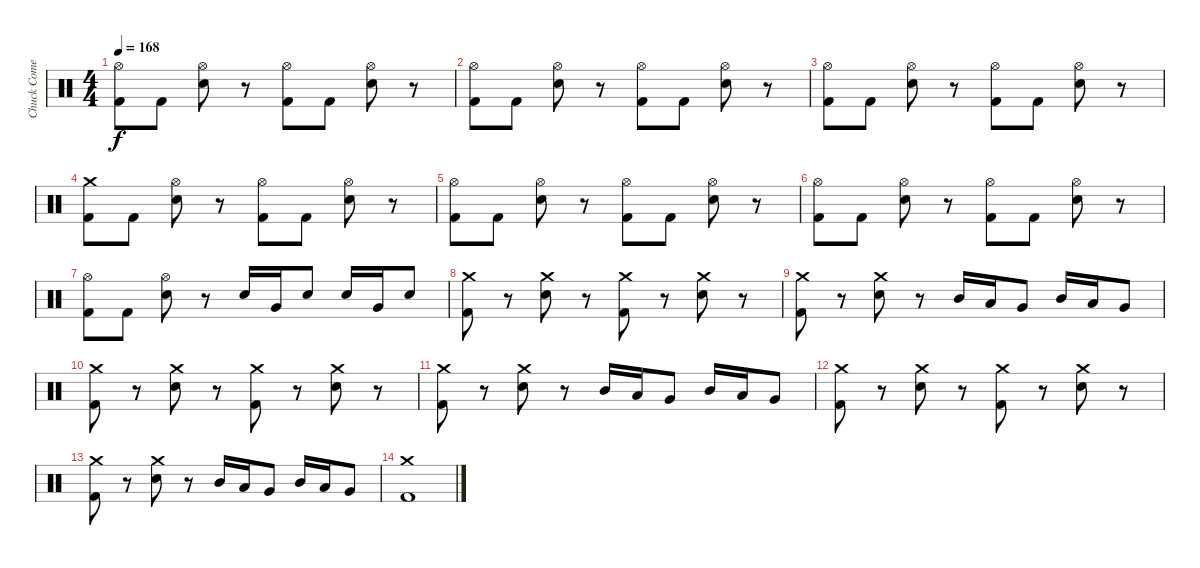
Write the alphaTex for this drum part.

\track ("Chuck Comeau" "Chuck Come") {instrument percussion}
\staff {score}
\articulation defaults
\ts (4 4)
\tempo 168
\clef neutral
\ks c
("Hi-Hat (open)" "Kick (hit) 2").8{dy f} "Kick (hit) 2".8 ("Hi-Hat (open)" "Snare (hit) 2").8 r.8 ("Hi-Hat (open)" "Kick (hit) 2").8 "Kick (hit) 2".8 ("Hi-Hat (open)" "Snare (hit) 2").8 r.8 |
("Hi-Hat (open)" "Kick (hit) 2").8 "Kick (hit) 2".8 ("Hi-Hat (open)" "Snare (hit) 2").8 r.8 ("Hi-Hat (open)" "Kick (hit) 2").8 "Kick (hit) 2".8 ("Hi-Hat (open)" "Snare (hit) 2").8 r.8 |
("Hi-Hat (open)" "Kick (hit) 2").8 "Kick (hit) 2".8 ("Hi-Hat (open)" "Snare (hit) 2").8 r.8 ("Hi-Hat (open)" "Kick (hit) 2").8 "Kick (hit) 2".8 ("Hi-Hat (open)" "Snare (hit) 2").8 r.8 |
("Crash medium (hit)" "Kick (hit) 2").8 "Kick (hit) 2".8 ("Hi-Hat (open)" "Snare (hit) 2").8 r.8 ("Hi-Hat (open)" "Kick (hit) 2").8 "Kick (hit) 2".8 ("Hi-Hat (open)" "Snare (hit) 2").8 r.8 |
("Hi-Hat (open)" "Kick (hit) 2").8 "Kick (hit) 2".8 ("Hi-Hat (open)" "Snare (hit) 2").8 r.8 ("Hi-Hat (open)" "Kick (hit) 2").8 "Kick (hit) 2".8 ("Hi-Hat (open)" "Snare (hit) 2").8 r.8 |
("Hi-Hat (open)" "Kick (hit) 2").8 "Kick (hit) 2".8 ("Hi-Hat (open)" "Snare (hit) 2").8 r.8 ("Hi-Hat (open)" "Kick (hit) 2").8 "Kick (hit) 2".8 ("Hi-Hat (open)" "Snare (hit) 2").8 r.8 |
("Hi-Hat (open)" "Kick (hit) 2").8 "Kick (hit) 2".8 ("Hi-Hat (open)" "Snare (hit) 2").8 r.8 "Snare (hit) 2".16 "Very Low Tom (hit)".16 "Snare (hit) 2".8 "Snare (hit) 2".16 "Very Low Tom (hit)".16 "Snare (hit) 2".8 |
("Crash medium (hit)" "Kick (hit) 2").8 r.8 ("Crash medium (hit)" "Snare (hit) 2").8 r.8 ("Crash medium (hit)" "Kick (hit) 2").8 r.8 ("Crash medium (hit)" "Snare (hit) 2").8 r.8 |
("Crash medium (hit)" "Kick (hit) 2").8 r.8 ("Crash medium (hit)" "Snare (hit) 2").8 r.8 "Mid Tom (hit)".16 "Low Tom (hit)".16 "Very Low Tom (hit)".8 "Mid Tom (hit)".16 "Low Tom (hit)".16 "Very Low Tom (hit)".8 |
("Crash medium (hit)" "Kick (hit) 2").8 r.8 ("Crash medium (hit)" "Snare (hit) 2").8 r.8 ("Crash medium (hit)" "Kick (hit) 2").8 r.8 ("Crash medium (hit)" "Snare (hit) 2").8 r.8 |
("Crash medium (hit)" "Kick (hit) 2").8 r.8 ("Crash medium (hit)" "Snare (hit) 2").8 r.8 "Mid Tom (hit)".16 "Low Tom (hit)".16 "Very Low Tom (hit)".8 "Mid Tom (hit)".16 "Low Tom (hit)".16 "Very Low Tom (hit)".8 |
("Crash medium (hit)" "Kick (hit) 2").8 r.8 ("Crash medium (hit)" "Snare (hit) 2").8 r.8 ("Crash medium (hit)" "Kick (hit) 2").8 r.8 ("Crash medium (hit)" "Snare (hit) 2").8 r.8 |
("Crash medium (hit)" "Kick (hit) 2").8 r.8 ("Crash medium (hit)" "Snare (hit) 2").8 r.8 "Mid Tom (hit)".16 "Low Tom (hit)".16 "Very Low Tom (hit)".8 "Mid Tom (hit)".16 "Low Tom (hit)".16 "Very Low Tom (hit)".8 |
("Crash medium (hit)" "Kick (hit) 2").1
